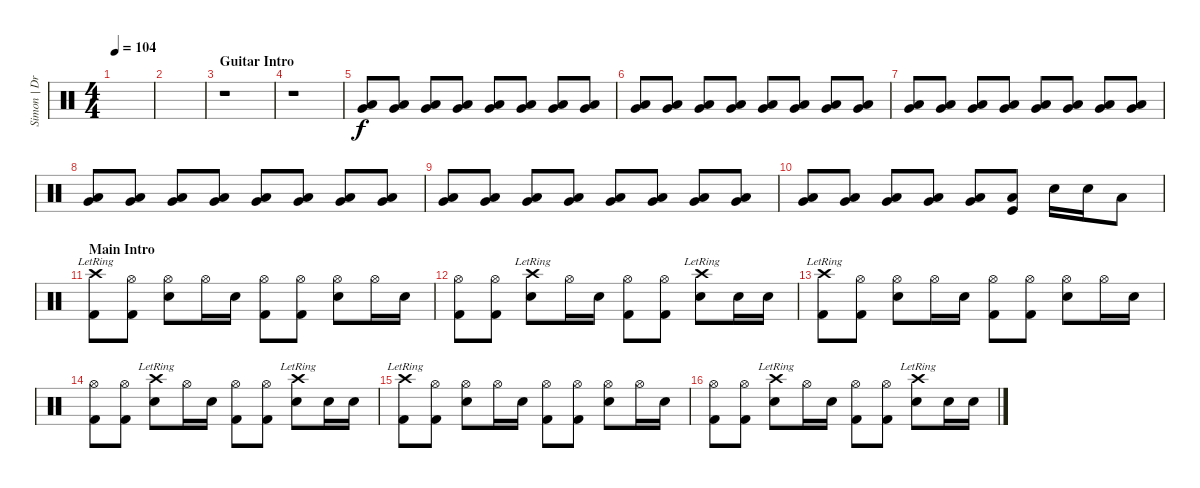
\track ("Simon | Drums" "Simon | Dr") {instrument percussion}
\staff {score}
\articulation defaults
\ts (4 4)
\tempo 104
\clef neutral
\ks c
|
|
\section ("" "Guitar Intro")
r.1 |
r.1 |
("Very Low Tom (hit)" "Low Floor Tom (hit)").8 ("Very Low Tom (hit)" "Low Floor Tom (hit)").8 ("Very Low Tom (hit)" "Low Floor Tom (hit)").8 ("Very Low Tom (hit)" "Low Floor Tom (hit)").8 ("Very Low Tom (hit)" "Low Floor Tom (hit)").8 ("Very Low Tom (hit)" "Low Floor Tom (hit)").8 ("Very Low Tom (hit)" "Low Floor Tom (hit)").8 ("Very Low Tom (hit)" "Low Floor Tom (hit)").8 |
("Very Low Tom (hit)" "Low Floor Tom (hit)").8 ("Very Low Tom (hit)" "Low Floor Tom (hit)").8 ("Very Low Tom (hit)" "Low Floor Tom (hit)").8 ("Very Low Tom (hit)" "Low Floor Tom (hit)").8 ("Very Low Tom (hit)" "Low Floor Tom (hit)").8 ("Very Low Tom (hit)" "Low Floor Tom (hit)").8 ("Very Low Tom (hit)" "Low Floor Tom (hit)").8 ("Very Low Tom (hit)" "Low Floor Tom (hit)").8 |
("Very Low Tom (hit)" "Low Floor Tom (hit)").8 ("Very Low Tom (hit)" "Low Floor Tom (hit)").8 ("Very Low Tom (hit)" "Low Floor Tom (hit)").8 ("Very Low Tom (hit)" "Low Floor Tom (hit)").8 ("Very Low Tom (hit)" "Low Floor Tom (hit)").8 ("Very Low Tom (hit)" "Low Floor Tom (hit)").8 ("Very Low Tom (hit)" "Low Floor Tom (hit)").8 ("Very Low Tom (hit)" "Low Floor Tom (hit)").8 |
("Very Low Tom (hit)" "Low Floor Tom (hit)").8 ("Very Low Tom (hit)" "Low Floor Tom (hit)").8 ("Very Low Tom (hit)" "Low Floor Tom (hit)").8 ("Very Low Tom (hit)" "Low Floor Tom (hit)").8 ("Very Low Tom (hit)" "Low Floor Tom (hit)").8 ("Very Low Tom (hit)" "Low Floor Tom (hit)").8 ("Very Low Tom (hit)" "Low Floor Tom (hit)").8 ("Very Low Tom (hit)" "Low Floor Tom (hit)").8 |
("Very Low Tom (hit)" "Low Floor Tom (hit)").8 ("Very Low Tom (hit)" "Low Floor Tom (hit)").8 ("Very Low Tom (hit)" "Low Floor Tom (hit)").8 ("Very Low Tom (hit)" "Low Floor Tom (hit)").8 ("Very Low Tom (hit)" "Low Floor Tom (hit)").8 ("Very Low Tom (hit)" "Low Floor Tom (hit)").8 ("Very Low Tom (hit)" "Low Floor Tom (hit)").8 ("Very Low Tom (hit)" "Low Floor Tom (hit)").8 |
("Very Low Tom (hit)" "Low Floor Tom (hit)").8 ("Very Low Tom (hit)" "Low Floor Tom (hit)").8 ("Very Low Tom (hit)" "Low Floor Tom (hit)").8 ("Very Low Tom (hit)" "Low Floor Tom (hit)").8 ("Very Low Tom (hit)" "Low Floor Tom (hit)").8 ("Low Floor Tom (hit)" "Kick (hit)").8 "Electric Snare (hit)".16 "Electric Snare (hit)".16 "Low Floor Tom (hit)".8 |
\section ("" "Main Intro")
("Crash high (hit)"{lr} "Kick (hit) 2").8 ("Hi-Hat (open)" "Kick (hit) 2").8 ("Hi-Hat (open)" "Electric Snare (hit)").8 "Hi-Hat (open)".16 "Electric Snare (hit)".16 ("Hi-Hat (open)" "Kick (hit) 2").8 ("Hi-Hat (open)" "Kick (hit) 2").8 ("Hi-Hat (open)" "Electric Snare (hit)").8 "Hi-Hat (open)".16 "Electric Snare (hit)".16 |
("Hi-Hat (open)" "Kick (hit) 2").8 ("Hi-Hat (open)" "Kick (hit) 2").8 ("Crash high (hit)"{lr} "Electric Snare (hit)").8 "Hi-Hat (open)".16 "Electric Snare (hit)".16 ("Hi-Hat (open)" "Kick (hit) 2").8 ("Hi-Hat (open)" "Kick (hit) 2").8 ("Crash high (hit)"{lr} "Electric Snare (hit)").8 "Electric Snare (hit)".16 "Electric Snare (hit)".16 |
("Crash high (hit)"{lr} "Kick (hit) 2").8 ("Hi-Hat (open)" "Kick (hit) 2").8 ("Hi-Hat (open)" "Electric Snare (hit)").8 "Hi-Hat (open)".16 "Electric Snare (hit)".16 ("Hi-Hat (open)" "Kick (hit) 2").8 ("Hi-Hat (open)" "Kick (hit) 2").8 ("Hi-Hat (open)" "Electric Snare (hit)").8 "Hi-Hat (open)".16 "Electric Snare (hit)".16 |
("Hi-Hat (open)" "Kick (hit) 2").8 ("Hi-Hat (open)" "Kick (hit) 2").8 ("Crash high (hit)"{lr} "Electric Snare (hit)").8 "Hi-Hat (open)".16 "Electric Snare (hit)".16 ("Hi-Hat (open)" "Kick (hit) 2").8 ("Hi-Hat (open)" "Kick (hit) 2").8 ("Crash high (hit)"{lr} "Electric Snare (hit)").8 "Electric Snare (hit)".16 "Electric Snare (hit)".16 |
("Crash high (hit)"{lr} "Kick (hit) 2").8 ("Hi-Hat (open)" "Kick (hit) 2").8 ("Hi-Hat (open)" "Electric Snare (hit)").8 "Hi-Hat (open)".16 "Electric Snare (hit)".16 ("Hi-Hat (open)" "Kick (hit) 2").8 ("Hi-Hat (open)" "Kick (hit) 2").8 ("Hi-Hat (open)" "Electric Snare (hit)").8 "Hi-Hat (open)".16 "Electric Snare (hit)".16 |
("Hi-Hat (open)" "Kick (hit) 2").8 ("Hi-Hat (open)" "Kick (hit) 2").8 ("Crash high (hit)"{lr} "Electric Snare (hit)").8 "Hi-Hat (open)".16 "Electric Snare (hit)".16 ("Hi-Hat (open)" "Kick (hit) 2").8 ("Hi-Hat (open)" "Kick (hit) 2").8 ("Crash high (hit)"{lr} "Electric Snare (hit)").8 "Electric Snare (hit)".16 "Electric Snare (hit)".16
